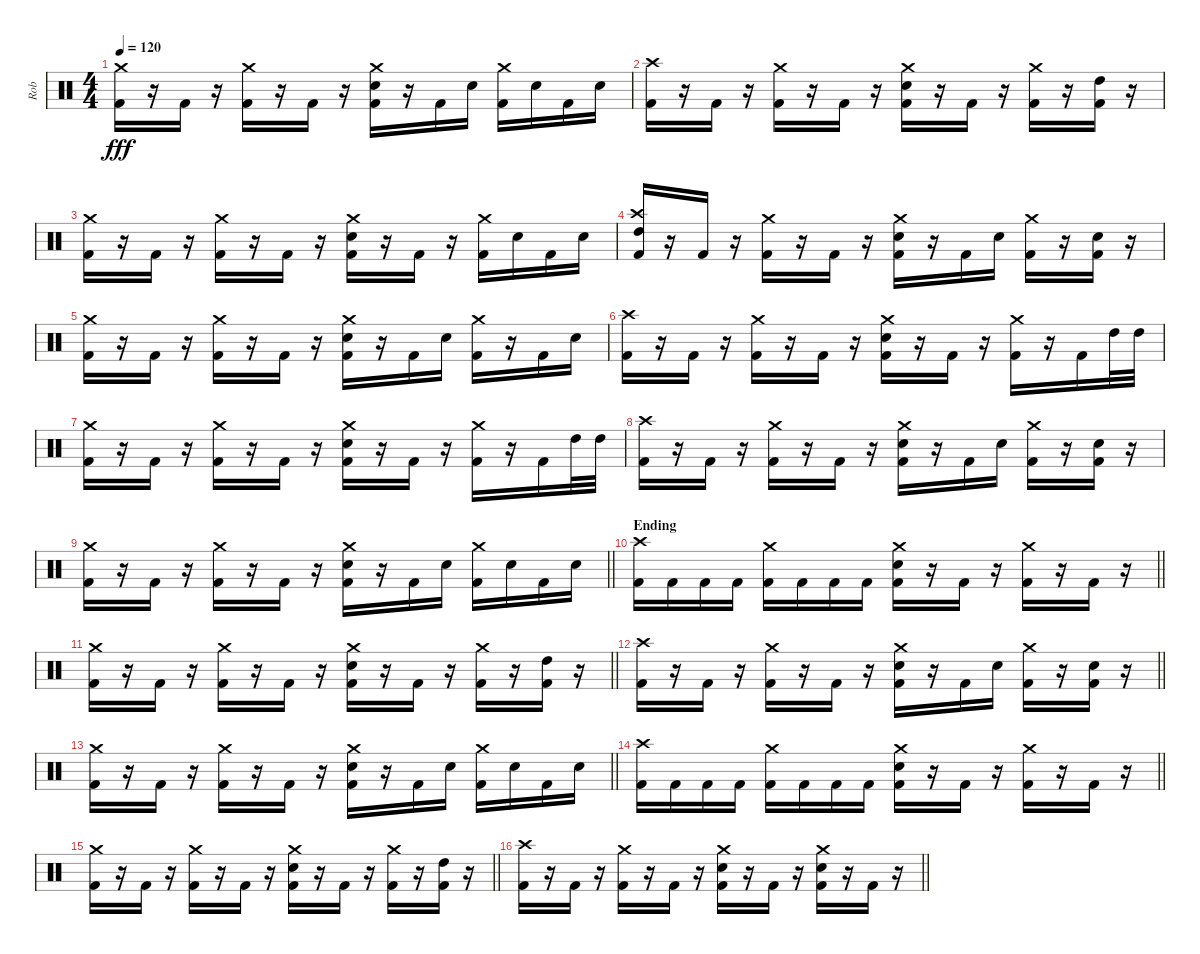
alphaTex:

\track ("Rob" "Rob") {instrument percussion}
\staff {score}
\articulation defaults
\ts (4 4)
\tempo 120
\clef neutral
\ks c
("Crash medium (hit)" "Kick (hit) 2").16{dy fff} r.16 "Kick (hit) 2".16 r.16 ("Crash medium (hit)" "Kick (hit) 2").16 r.16 "Kick (hit) 2".16 r.16 ("Crash medium (hit)" "Electric Snare (hit)" "Kick (hit) 2").16 r.16 "Kick (hit) 2".16 "Electric Snare (hit)".16 ("Crash medium (hit)" "Kick (hit) 2").16 "Electric Snare (hit)".16 "Kick (hit) 2".16 "Electric Snare (hit)".16 |
("Crash high (hit)" "Kick (hit) 2").16 r.16 "Kick (hit) 2".16 r.16 ("Crash medium (hit)" "Kick (hit) 2").16 r.16 "Kick (hit) 2".16 r.16 ("Crash medium (hit)" "Electric Snare (hit)" "Kick (hit) 2").16 r.16 "Kick (hit) 2".16 r.16 ("Crash medium (hit)" "Kick (hit) 2").16 r.16 ("High Tom (hit)" "Kick (hit) 2").16 r.16 |
("Crash medium (hit)" "Kick (hit) 2").16 r.16 "Kick (hit) 2".16 r.16 ("Crash medium (hit)" "Kick (hit) 2").16 r.16 "Kick (hit) 2".16 r.16 ("Crash medium (hit)" "Electric Snare (hit)" "Kick (hit) 2").16 r.16 "Kick (hit) 2".16 r.16 ("Crash medium (hit)" "Kick (hit) 2").16 "Electric Snare (hit)".16 "Kick (hit) 2".16 "Electric Snare (hit)".16 |
("Crash high (hit)" "High Tom (hit)" "Kick (hit) 2").16 r.16 "Kick (hit) 2".16 r.16 ("Crash medium (hit)" "Kick (hit) 2").16 r.16 "Kick (hit) 2".16 r.16 ("Crash medium (hit)" "Electric Snare (hit)" "Kick (hit) 2").16 r.16 "Kick (hit) 2".16 "Electric Snare (hit)".16 ("Crash medium (hit)" "Kick (hit) 2").16 r.16 ("Electric Snare (hit)" "Kick (hit) 2").16 r.16 |
("Crash medium (hit)" "Kick (hit) 2").16 r.16 "Kick (hit) 2".16 r.16 ("Crash medium (hit)" "Kick (hit) 2").16 r.16 "Kick (hit) 2".16 r.16 ("Crash medium (hit)" "Electric Snare (hit)" "Kick (hit) 2").16 r.16 "Kick (hit) 2".16 "Electric Snare (hit)".16 ("Crash medium (hit)" "Kick (hit) 2").16 r.16 "Kick (hit) 2".16 "Electric Snare (hit)".16 |
("Crash high (hit)" "Kick (hit) 2").16 r.16 "Kick (hit) 2".16 r.16 ("Crash medium (hit)" "Kick (hit) 2").16 r.16 "Kick (hit) 2".16 r.16 ("Crash medium (hit)" "Electric Snare (hit)" "Kick (hit) 2").16 r.16 "Kick (hit) 2".16 r.16 ("Crash medium (hit)" "Kick (hit) 2").16 r.16 "Kick (hit) 2".16 "High Tom (hit)".32 "High Tom (hit)".32 |
("Crash medium (hit)" "Kick (hit) 2").16 r.16 "Kick (hit) 2".16 r.16 ("Crash medium (hit)" "Kick (hit) 2").16 r.16 "Kick (hit) 2".16 r.16 ("Crash medium (hit)" "Electric Snare (hit)" "Kick (hit) 2").16 r.16 "Kick (hit) 2".16 r.16 ("Crash medium (hit)" "Kick (hit) 2").16 r.16 "Kick (hit) 2".16 "High Tom (hit)".32 "High Tom (hit)".32 |
("Crash high (hit)" "Kick (hit) 2").16 r.16 "Kick (hit) 2".16 r.16 ("Crash medium (hit)" "Kick (hit) 2").16 r.16 "Kick (hit) 2".16 r.16 ("Crash medium (hit)" "Electric Snare (hit)" "Kick (hit) 2").16 r.16 "Kick (hit) 2".16 "Electric Snare (hit)".16 ("Crash medium (hit)" "Kick (hit) 2").16 r.16 ("Electric Snare (hit)" "Kick (hit) 2").16 r.16 |
\barLineRight lightlight
("Crash medium (hit)" "Kick (hit) 2").16 r.16 "Kick (hit) 2".16 r.16 ("Crash medium (hit)" "Kick (hit) 2").16 r.16 "Kick (hit) 2".16 r.16 ("Crash medium (hit)" "Electric Snare (hit)" "Kick (hit) 2").16 r.16 "Kick (hit) 2".16 "Electric Snare (hit)".16 ("Crash medium (hit)" "Kick (hit) 2").16 "Electric Snare (hit)".16 "Kick (hit) 2".16 "Electric Snare (hit)".16 |
\section ("" "Ending")
\barLineRight lightlight
("Crash high (hit)" "Kick (hit) 2").16 "Kick (hit) 2".16 "Kick (hit) 2".16 "Kick (hit) 2".16 ("Crash medium (hit)" "Kick (hit) 2").16 "Kick (hit) 2".16 "Kick (hit) 2".16 "Kick (hit) 2".16 ("Crash medium (hit)" "Electric Snare (hit)" "Kick (hit) 2").16 r.16 "Kick (hit) 2".16 r.16 ("Crash medium (hit)" "Kick (hit) 2").16 r.16 "Kick (hit) 2".16 r.16 |
\barLineRight lightlight
("Crash medium (hit)" "Kick (hit) 2").16 r.16 "Kick (hit) 2".16 r.16 ("Crash medium (hit)" "Kick (hit) 2").16 r.16 "Kick (hit) 2".16 r.16 ("Crash medium (hit)" "Electric Snare (hit)" "Kick (hit) 2").16 r.16 "Kick (hit) 2".16 r.16 ("Crash medium (hit)" "Kick (hit) 2").16 r.16 ("High Tom (hit)" "Kick (hit) 2").16 r.16 |
\barLineRight lightlight
("Crash high (hit)" "Kick (hit) 2").16 r.16 "Kick (hit) 2".16 r.16 ("Crash medium (hit)" "Kick (hit) 2").16 r.16 "Kick (hit) 2".16 r.16 ("Crash medium (hit)" "Electric Snare (hit)" "Kick (hit) 2").16 r.16 "Kick (hit) 2".16 "Electric Snare (hit)".16 ("Crash medium (hit)" "Kick (hit) 2").16 r.16 ("Electric Snare (hit)" "Kick (hit) 2").16 r.16 |
\barLineRight lightlight
("Crash medium (hit)" "Kick (hit) 2").16 r.16 "Kick (hit) 2".16 r.16 ("Crash medium (hit)" "Kick (hit) 2").16 r.16 "Kick (hit) 2".16 r.16 ("Crash medium (hit)" "Electric Snare (hit)" "Kick (hit) 2").16 r.16 "Kick (hit) 2".16 "Electric Snare (hit)".16 ("Crash medium (hit)" "Kick (hit) 2").16 "Electric Snare (hit)".16 "Kick (hit) 2".16 "Electric Snare (hit)".16 |
\barLineRight lightlight
("Crash high (hit)" "Kick (hit) 2").16 "Kick (hit) 2".16 "Kick (hit) 2".16 "Kick (hit) 2".16 ("Crash medium (hit)" "Kick (hit) 2").16 "Kick (hit) 2".16 "Kick (hit) 2".16 "Kick (hit) 2".16 ("Crash medium (hit)" "Electric Snare (hit)" "Kick (hit) 2").16 r.16 "Kick (hit) 2".16 r.16 ("Crash medium (hit)" "Kick (hit) 2").16 r.16 "Kick (hit) 2".16 r.16 |
\barLineRight lightlight
("Crash medium (hit)" "Kick (hit) 2").16 r.16 "Kick (hit) 2".16 r.16 ("Crash medium (hit)" "Kick (hit) 2").16 r.16 "Kick (hit) 2".16 r.16 ("Crash medium (hit)" "Electric Snare (hit)" "Kick (hit) 2").16 r.16 "Kick (hit) 2".16 r.16 ("Crash medium (hit)" "Kick (hit) 2").16 r.16 ("High Tom (hit)" "Kick (hit) 2").16 r.16 |
\barLineRight lightlight
("Crash high (hit)" "Kick (hit) 2").16 r.16 "Kick (hit) 2".16 r.16 ("Crash medium (hit)" "Kick (hit) 2").16 r.16 "Kick (hit) 2".16 r.16 ("Crash medium (hit)" "Electric Snare (hit)" "Kick (hit) 2").16 r.16 "Kick (hit) 2".16 r.16 ("Crash medium (hit)" "Electric Snare (hit)" "Kick (hit) 2").16 r.16 "Kick (hit) 2".16 r.16
